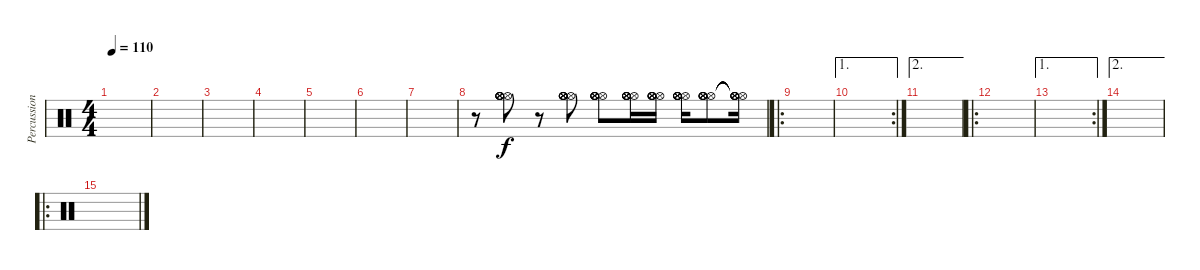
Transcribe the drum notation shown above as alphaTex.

\track ("Percussion 5" "Percussion") {instrument percussion}
\staff {score}
\articulation defaults
\ts (4 4)
\tempo 110
\clef neutral
\ks c
|
|
|
|
|
|
|
r.8 ("Hi-Hat (open)" "Hi-Hat (open)" "Hi-Hat (open)" "Hi-Hat (open)" "Hi-Hat (open)" "Hi-Hat (open)").8 r.8 ("Hi-Hat (open)" "Hi-Hat (open)" "Hi-Hat (open)" "Hi-Hat (open)" "Hi-Hat (open)" "Hi-Hat (open)").8 ("Hi-Hat (open)" "Hi-Hat (open)" "Hi-Hat (open)" "Hi-Hat (open)" "Hi-Hat (open)" "Hi-Hat (open)").8 ("Hi-Hat (open)" "Hi-Hat (open)" "Hi-Hat (open)" "Hi-Hat (open)" "Hi-Hat (open)" "Hi-Hat (open)").16 ("Hi-Hat (open)" "Hi-Hat (open)" "Hi-Hat (open)" "Hi-Hat (open)" "Hi-Hat (open)" "Hi-Hat (open)").16 ("Hi-Hat (open)" "Hi-Hat (open)" "Hi-Hat (open)" "Hi-Hat (open)" "Hi-Hat (open)" "Hi-Hat (open)").16 ("Hi-Hat (open)" "Hi-Hat (open)" "Hi-Hat (open)" "Hi-Hat (open)" "Hi-Hat (open)" "Hi-Hat (open)").8 ("Hi-Hat (open)"{t} "Hi-Hat (open)"{t} "Hi-Hat (open)"{t} "Hi-Hat (open)"{t} "Hi-Hat (open)"{t} "Hi-Hat (open)"{t}).16 |
\ro
|
\ae 1
\rc 2
|
\ae 2
|
\ro
|
\ae 1
\rc 2
|
\ae 2
|
\ro
